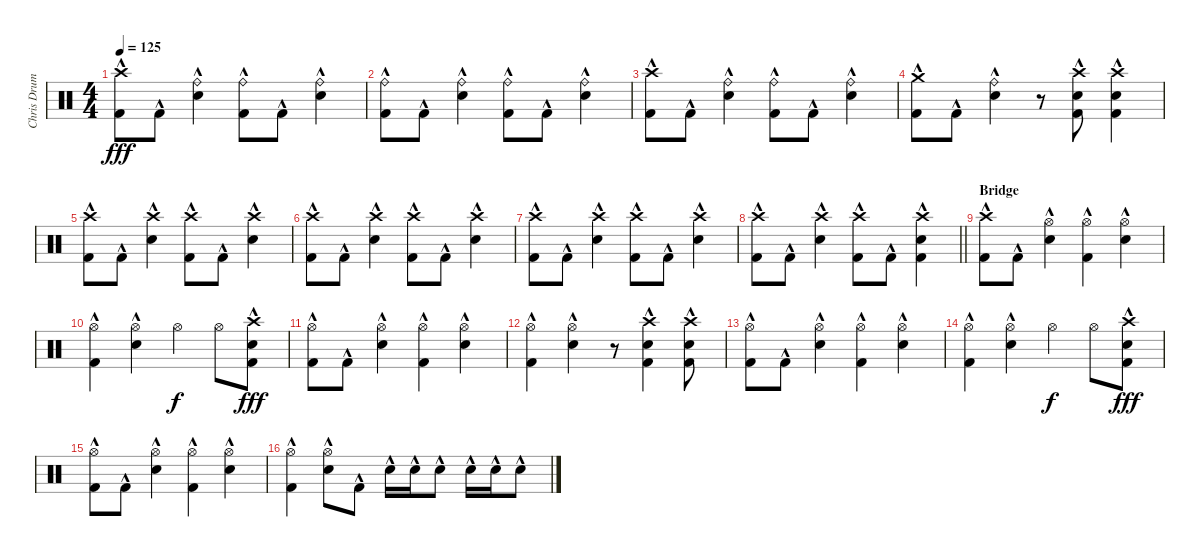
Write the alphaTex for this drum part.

\track ("Chris Drums" "Chris Drum") {instrument percussion}
\staff {score}
\articulation defaults
\ts (4 4)
\tempo 125
\clef neutral
\ks c
("Crash high (hit)"{hac} "Kick (hit) 2"{hac}).8{dy fff} "Kick (hit) 2"{hac}.8 ("Ride (bell)"{hac} "Snare (hit) 2"{hac}).4 ("Ride (bell)"{hac} "Kick (hit) 2"{hac}).8 "Kick (hit) 2"{hac}.8 ("Ride (bell)"{hac} "Snare (hit) 2"{hac}).4 |
("Ride (bell)"{hac} "Kick (hit) 2"{hac}).8 "Kick (hit) 2"{hac}.8 ("Ride (bell)"{hac} "Snare (hit) 2"{hac}).4 ("Ride (bell)"{hac} "Kick (hit) 2"{hac}).8 "Kick (hit) 2"{hac}.8 ("Ride (bell)"{hac} "Snare (hit) 2"{hac}).4 |
("Crash high (hit)"{hac} "Kick (hit) 2"{hac}).8 "Kick (hit) 2"{hac}.8 ("Ride (bell)"{hac} "Snare (hit) 2"{hac}).4 ("Ride (bell)"{hac} "Kick (hit) 2"{hac}).8 "Kick (hit) 2"{hac}.8 ("Ride (bell)"{hac} "Snare (hit) 2"{hac}).4 |
("Crash medium (hit)"{hac} "Kick (hit) 2"{hac}).8 "Kick (hit) 2"{hac}.8 ("Ride (bell)"{hac} "Snare (hit) 2"{hac}).4 r.8 ("Crash high (hit)" "Snare (hit) 2"{hac} "Kick (hit) 2"{hac}).8 ("Crash high (hit)" "Snare (hit) 2"{hac} "Kick (hit) 2"{hac}).4 |
("Crash high (hit)"{hac} "Kick (hit) 2"{hac}).8 "Kick (hit) 2"{hac}.8 ("Crash high (hit)"{hac} "Snare (hit) 2"{hac}).4 ("Crash high (hit)"{hac} "Kick (hit) 2"{hac}).8 "Kick (hit) 2"{hac}.8 ("Crash high (hit)"{hac} "Snare (hit) 2"{hac}).4 |
("Crash high (hit)"{hac} "Kick (hit) 2"{hac}).8 "Kick (hit) 2"{hac}.8 ("Crash high (hit)"{hac} "Snare (hit) 2"{hac}).4 ("Crash high (hit)"{hac} "Kick (hit) 2"{hac}).8 "Kick (hit) 2"{hac}.8 ("Crash high (hit)"{hac} "Snare (hit) 2"{hac}).4 |
("Crash high (hit)"{hac} "Kick (hit) 2"{hac}).8 "Kick (hit) 2"{hac}.8 ("Crash high (hit)"{hac} "Snare (hit) 2"{hac}).4 ("Crash high (hit)"{hac} "Kick (hit) 2"{hac}).8 "Kick (hit) 2"{hac}.8 ("Crash high (hit)"{hac} "Snare (hit) 2"{hac}).4 |
\barLineRight lightlight
("Crash high (hit)"{hac} "Kick (hit) 2"{hac}).8 "Kick (hit) 2"{hac}.8 ("Crash high (hit)"{hac} "Snare (hit) 2"{hac}).4 ("Crash high (hit)"{hac} "Kick (hit) 2"{hac}).8 "Kick (hit) 2"{hac}.8 ("Crash high (hit)"{hac} "Snare (hit) 2"{hac} "Kick (hit) 2"{hac}).4 |
\section ("" "Bridge")
("Crash high (hit)" "Kick (hit) 2"{hac}).8 "Kick (hit) 2"{hac}.8 ("Hi-Hat (open)" "Snare (hit) 2"{hac}).4 ("Hi-Hat (open)" "Kick (hit) 2"{hac}).4 ("Hi-Hat (open)" "Snare (hit) 2"{hac}).4 |
("Hi-Hat (open)" "Kick (hit) 2"{hac}).4 ("Hi-Hat (open)" "Snare (hit) 2"{hac}).4 "Hi-Hat (open)".4{dy f} "Hi-Hat (open)".8 ("Crash high (hit)" "Snare (hit) 2"{hac} "Kick (hit) 2"{hac}).8{dy fff} |
("Hi-Hat (open)" "Kick (hit) 2"{hac}).8 "Kick (hit) 2"{hac}.8 ("Hi-Hat (open)" "Snare (hit) 2"{hac}).4 ("Hi-Hat (open)" "Kick (hit) 2"{hac}).4 ("Hi-Hat (open)" "Snare (hit) 2"{hac}).4 |
("Hi-Hat (open)" "Kick (hit) 2"{hac}).4 ("Hi-Hat (open)" "Snare (hit) 2"{hac}).4 r.8 ("Crash high (hit)" "Snare (hit) 2"{hac} "Kick (hit) 2"{hac}).4 ("Crash high (hit)" "Snare (hit) 2"{hac} "Kick (hit) 2"{hac}).8 |
("Hi-Hat (open)" "Kick (hit) 2"{hac}).8 "Kick (hit) 2"{hac}.8 ("Hi-Hat (open)" "Snare (hit) 2"{hac}).4 ("Hi-Hat (open)" "Kick (hit) 2"{hac}).4 ("Hi-Hat (open)" "Snare (hit) 2"{hac}).4 |
("Hi-Hat (open)" "Kick (hit) 2"{hac}).4 ("Hi-Hat (open)" "Snare (hit) 2"{hac}).4 "Hi-Hat (open)".4{dy f} "Hi-Hat (open)".8 ("Crash high (hit)" "Snare (hit) 2"{hac} "Kick (hit) 2"{hac}).8{dy fff} |
("Hi-Hat (open)" "Kick (hit) 2"{hac}).8 "Kick (hit) 2"{hac}.8 ("Hi-Hat (open)" "Snare (hit) 2"{hac}).4 ("Hi-Hat (open)" "Kick (hit) 2"{hac}).4 ("Hi-Hat (open)" "Snare (hit) 2"{hac}).4 |
("Hi-Hat (open)" "Kick (hit) 2"{hac}).4 ("Hi-Hat (open)" "Snare (hit) 2"{hac}).8 "Kick (hit) 2"{hac}.8 "Snare (hit) 2"{hac}.16 "Snare (hit) 2"{hac}.16 "Snare (hit) 2"{hac}.8 "Snare (hit) 2"{hac}.16 "Snare (hit) 2"{hac}.16 "Snare (hit) 2"{hac}.8
